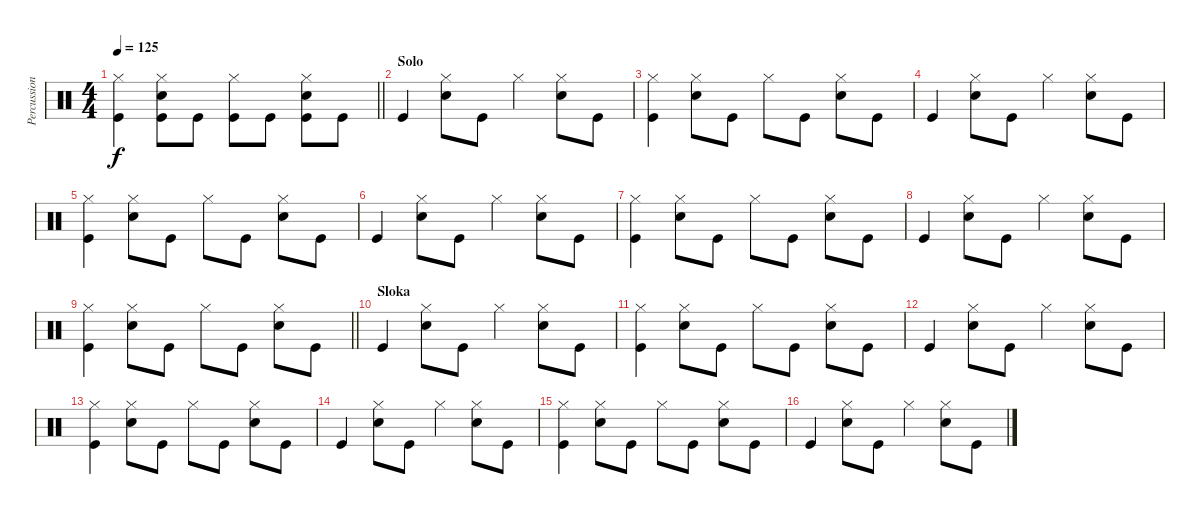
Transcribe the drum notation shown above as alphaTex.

\track ("Percussion" "Percussion") {instrument percussion}
\staff {score}
\articulation defaults
\ts (4 4)
\tempo 125
\clef neutral
\barLineRight lightlight
\ks c
("Hi-Hat (closed)" "Kick (hit)").4{dy f} ("Hi-Hat (closed)" "Kick (hit)" "Snare (hit) 2").8 "Kick (hit)".8 ("Hi-Hat (closed)" "Kick (hit)").8 "Kick (hit)".8 ("Hi-Hat (closed)" "Kick (hit)" "Snare (hit) 2").8 "Kick (hit)".8 |
\section ("" "Solo")
"Kick (hit)".4 ("Hi-Hat (closed)" "Snare (hit) 2").8 "Kick (hit)".8 "Hi-Hat (closed)".4 ("Hi-Hat (closed)" "Snare (hit) 2").8 "Kick (hit)".8 |
("Hi-Hat (closed)" "Kick (hit)").4 ("Hi-Hat (closed)" "Snare (hit) 2").8 "Kick (hit)".8 "Hi-Hat (closed)".8 "Kick (hit)".8 ("Hi-Hat (closed)" "Snare (hit) 2").8 "Kick (hit)".8 |
"Kick (hit)".4 ("Hi-Hat (closed)" "Snare (hit) 2").8 "Kick (hit)".8 "Hi-Hat (closed)".4 ("Hi-Hat (closed)" "Snare (hit) 2").8 "Kick (hit)".8 |
("Hi-Hat (closed)" "Kick (hit)").4 ("Hi-Hat (closed)" "Snare (hit) 2").8 "Kick (hit)".8 "Hi-Hat (closed)".8 "Kick (hit)".8 ("Hi-Hat (closed)" "Snare (hit) 2").8 "Kick (hit)".8 |
"Kick (hit)".4 ("Hi-Hat (closed)" "Snare (hit) 2").8 "Kick (hit)".8 "Hi-Hat (closed)".4 ("Hi-Hat (closed)" "Snare (hit) 2").8 "Kick (hit)".8 |
("Hi-Hat (closed)" "Kick (hit)").4 ("Hi-Hat (closed)" "Snare (hit) 2").8 "Kick (hit)".8 "Hi-Hat (closed)".8 "Kick (hit)".8 ("Hi-Hat (closed)" "Snare (hit) 2").8 "Kick (hit)".8 |
"Kick (hit)".4 ("Hi-Hat (closed)" "Snare (hit) 2").8 "Kick (hit)".8 "Hi-Hat (closed)".4 ("Hi-Hat (closed)" "Snare (hit) 2").8 "Kick (hit)".8 |
\barLineRight lightlight
("Hi-Hat (closed)" "Kick (hit)").4 ("Hi-Hat (closed)" "Snare (hit) 2").8 "Kick (hit)".8 "Hi-Hat (closed)".8 "Kick (hit)".8 ("Hi-Hat (closed)" "Snare (hit) 2").8 "Kick (hit)".8 |
\section ("" "Sloka")
"Kick (hit)".4 ("Hi-Hat (closed)" "Snare (hit) 2").8 "Kick (hit)".8 "Hi-Hat (closed)".4 ("Hi-Hat (closed)" "Snare (hit) 2").8 "Kick (hit)".8 |
("Hi-Hat (closed)" "Kick (hit)").4 ("Hi-Hat (closed)" "Snare (hit) 2").8 "Kick (hit)".8 "Hi-Hat (closed)".8 "Kick (hit)".8 ("Hi-Hat (closed)" "Snare (hit) 2").8 "Kick (hit)".8 |
"Kick (hit)".4 ("Hi-Hat (closed)" "Snare (hit) 2").8 "Kick (hit)".8 "Hi-Hat (closed)".4 ("Hi-Hat (closed)" "Snare (hit) 2").8 "Kick (hit)".8 |
("Hi-Hat (closed)" "Kick (hit)").4 ("Hi-Hat (closed)" "Snare (hit) 2").8 "Kick (hit)".8 "Hi-Hat (closed)".8 "Kick (hit)".8 ("Hi-Hat (closed)" "Snare (hit) 2").8 "Kick (hit)".8 |
"Kick (hit)".4 ("Hi-Hat (closed)" "Snare (hit) 2").8 "Kick (hit)".8 "Hi-Hat (closed)".4 ("Hi-Hat (closed)" "Snare (hit) 2").8 "Kick (hit)".8 |
("Hi-Hat (closed)" "Kick (hit)").4 ("Hi-Hat (closed)" "Snare (hit) 2").8 "Kick (hit)".8 "Hi-Hat (closed)".8 "Kick (hit)".8 ("Hi-Hat (closed)" "Snare (hit) 2").8 "Kick (hit)".8 |
"Kick (hit)".4 ("Hi-Hat (closed)" "Snare (hit) 2").8 "Kick (hit)".8 "Hi-Hat (closed)".4 ("Hi-Hat (closed)" "Snare (hit) 2").8 "Kick (hit)".8
